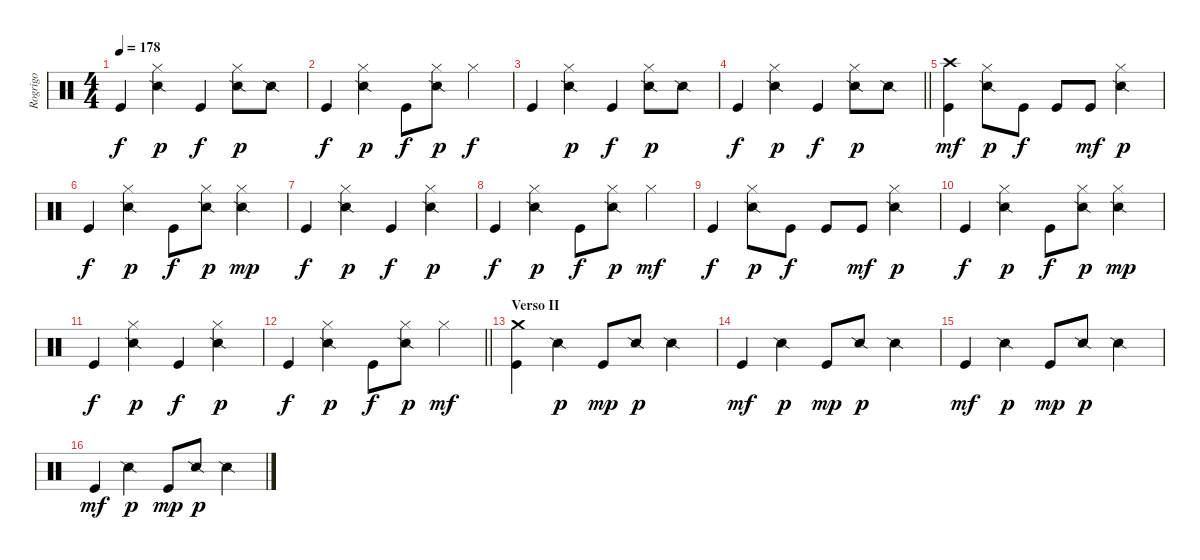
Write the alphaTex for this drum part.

\track ("Rogrigo" "Rogrigo") {instrument percussion}
\staff {score}
\articulation defaults
\ts (4 4)
\tempo 178
\clef neutral
\ks c "Kick (hit)".4{dy f}
("Hi-Hat (closed)" "Snare (side stick) 2").4{dy p} "Kick (hit)".4{dy f} ("Hi-Hat (closed)" "Snare (side stick) 2").8{dy p} "Snare (side stick) 2".8 |
"Kick (hit)".4{dy f} ("Hi-Hat (closed)" "Snare (side stick) 2").4{dy p} "Kick (hit)".8{dy f} ("Hi-Hat (closed)" "Snare (side stick) 2").8{dy p} "Hi-Hat (closed)".4{dy f} |
"Kick (hit)".4 ("Hi-Hat (closed)" "Snare (side stick) 2").4{dy p} "Kick (hit)".4{dy f} ("Hi-Hat (closed)" "Snare (side stick) 2").8{dy p} "Snare (side stick) 2".8 |
\barLineRight lightlight "Kick (hit)".4{dy f}
("Hi-Hat (closed)" "Snare (side stick) 2").4{dy p} "Kick (hit)".4{dy f} ("Hi-Hat (closed)" "Snare (side stick) 2").8{dy p} "Snare (side stick) 2".8 |
("Crash high (hit)" "Kick (hit)").4{dy mf} ("Hi-Hat (closed)" "Snare (side stick) 2").8{dy p} "Kick (hit)".8{dy f} "Kick (hit)".8 "Kick (hit)".8{dy mf} ("Hi-Hat (closed)" "Snare (side stick) 2").4{dy p} |
"Kick (hit)".4{dy f} ("Hi-Hat (closed)" "Snare (side stick) 2").4{dy p} "Kick (hit)".8{dy f} ("Hi-Hat (closed)" "Snare (side stick) 2").8{dy p} ("Hi-Hat (closed)" "Snare (side stick) 2").4{dy mp} |
"Kick (hit)".4{dy f} ("Hi-Hat (closed)" "Snare (side stick) 2").4{dy p} "Kick (hit)".4{dy f} ("Hi-Hat (closed)" "Snare (side stick) 2").4{dy p} |
"Kick (hit)".4{dy f} ("Hi-Hat (closed)" "Snare (side stick) 2").4{dy p} "Kick (hit)".8{dy f} ("Hi-Hat (closed)" "Snare (side stick) 2").8{dy p} "Hi-Hat (closed)".4{dy mf} |
"Kick (hit)".4{dy f} ("Hi-Hat (closed)" "Snare (side stick) 2").8{dy p} "Kick (hit)".8{dy f} "Kick (hit)".8 "Kick (hit)".8{dy mf} ("Hi-Hat (closed)" "Snare (side stick) 2").4{dy p} |
"Kick (hit)".4{dy f} ("Hi-Hat (closed)" "Snare (side stick) 2").4{dy p} "Kick (hit)".8{dy f} ("Hi-Hat (closed)" "Snare (side stick) 2").8{dy p} ("Hi-Hat (closed)" "Snare (side stick) 2").4{dy mp} |
"Kick (hit)".4{dy f} ("Hi-Hat (closed)" "Snare (side stick) 2").4{dy p} "Kick (hit)".4{dy f} ("Hi-Hat (closed)" "Snare (side stick) 2").4{dy p} |
\barLineRight lightlight "Kick (hit)".4{dy f}
("Hi-Hat (closed)" "Snare (side stick) 2").4{dy p} "Kick (hit)".8{dy f} ("Hi-Hat (closed)" "Snare (side stick) 2").8{dy p} "Hi-Hat (closed)".4{dy mf} |
\section ("" "Verso II")
("Crash medium (hit)" "Kick (hit)").4 "Snare (side stick) 2".4{dy p} "Kick (hit)".8{dy mp} "Snare (side stick) 2".8{dy p} "Snare (side stick) 2".4 |
"Kick (hit)".4{dy mf} "Snare (side stick) 2".4{dy p} "Kick (hit)".8{dy mp} "Snare (side stick) 2".8{dy p} "Snare (side stick) 2".4 |
"Kick (hit)".4{dy mf} "Snare (side stick) 2".4{dy p} "Kick (hit)".8{dy mp} "Snare (side stick) 2".8{dy p} "Snare (side stick) 2".4 |
"Kick (hit)".4{dy mf} "Snare (side stick) 2".4{dy p} "Kick (hit)".8{dy mp} "Snare (side stick) 2".8{dy p} "Snare (side stick) 2".4
